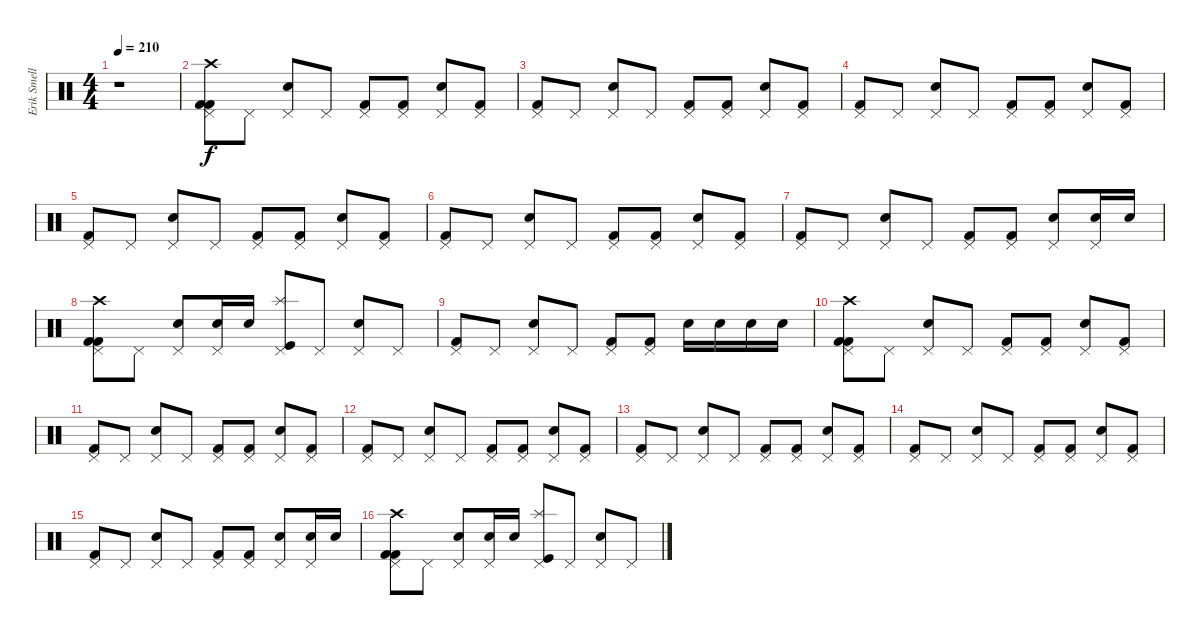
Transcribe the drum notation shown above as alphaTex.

\track ("Erik Smelly" "Erik Smell") {instrument percussion}
\staff {score}
\articulation defaults
\ts (4 4)
\tempo 210
\clef neutral
\ks c
r.1{dy f} |
("Pedal Hi-Hat (hit)" "Kick (hit) 2" "Crash high (hit)" "Kick (hit) 2").8 "Pedal Hi-Hat (hit)".8 ("Pedal Hi-Hat (hit)" "Electric Snare (hit)").8 "Pedal Hi-Hat (hit)".8 ("Pedal Hi-Hat (hit)" "Kick (hit) 2").8 ("Pedal Hi-Hat (hit)" "Kick (hit) 2").8 ("Pedal Hi-Hat (hit)" "Electric Snare (hit)").8 ("Kick (hit) 2" "Pedal Hi-Hat (hit)").8 |
("Pedal Hi-Hat (hit)" "Kick (hit) 2").8 "Pedal Hi-Hat (hit)".8 ("Pedal Hi-Hat (hit)" "Electric Snare (hit)").8 "Pedal Hi-Hat (hit)".8 ("Pedal Hi-Hat (hit)" "Kick (hit) 2").8 ("Pedal Hi-Hat (hit)" "Kick (hit) 2").8 ("Pedal Hi-Hat (hit)" "Electric Snare (hit)").8 ("Kick (hit) 2" "Pedal Hi-Hat (hit)").8 |
("Pedal Hi-Hat (hit)" "Kick (hit) 2").8 "Pedal Hi-Hat (hit)".8 ("Pedal Hi-Hat (hit)" "Electric Snare (hit)").8 "Pedal Hi-Hat (hit)".8 ("Pedal Hi-Hat (hit)" "Kick (hit) 2").8 ("Pedal Hi-Hat (hit)" "Kick (hit) 2").8 ("Pedal Hi-Hat (hit)" "Electric Snare (hit)").8 ("Kick (hit) 2" "Pedal Hi-Hat (hit)").8 |
("Pedal Hi-Hat (hit)" "Kick (hit) 2").8 "Pedal Hi-Hat (hit)".8 ("Pedal Hi-Hat (hit)" "Electric Snare (hit)").8 "Pedal Hi-Hat (hit)".8 ("Pedal Hi-Hat (hit)" "Kick (hit) 2").8 ("Pedal Hi-Hat (hit)" "Kick (hit) 2").8 ("Pedal Hi-Hat (hit)" "Electric Snare (hit)").8 ("Kick (hit) 2" "Pedal Hi-Hat (hit)").8 |
("Pedal Hi-Hat (hit)" "Kick (hit) 2").8 "Pedal Hi-Hat (hit)".8 ("Pedal Hi-Hat (hit)" "Electric Snare (hit)").8 "Pedal Hi-Hat (hit)".8 ("Pedal Hi-Hat (hit)" "Kick (hit) 2").8 ("Pedal Hi-Hat (hit)" "Kick (hit) 2").8 ("Pedal Hi-Hat (hit)" "Electric Snare (hit)").8 ("Kick (hit) 2" "Pedal Hi-Hat (hit)").8 |
("Pedal Hi-Hat (hit)" "Kick (hit) 2").8 "Pedal Hi-Hat (hit)".8 ("Pedal Hi-Hat (hit)" "Electric Snare (hit)").8 "Pedal Hi-Hat (hit)".8 ("Pedal Hi-Hat (hit)" "Kick (hit) 2").8 ("Pedal Hi-Hat (hit)" "Kick (hit) 2").8 ("Pedal Hi-Hat (hit)" "Electric Snare (hit)").8 ("Pedal Hi-Hat (hit)" "Electric Snare (hit)").16 "Electric Snare (hit)".16 |
("Crash high (hit)" "Kick (hit) 2" "Pedal Hi-Hat (hit)" "Kick (hit) 2").8 "Pedal Hi-Hat (hit)".8 ("Pedal Hi-Hat (hit)" "Electric Snare (hit)").8 ("Pedal Hi-Hat (hit)" "Electric Snare (hit)").16 "Electric Snare (hit)".16 ("Splash (hit)" "Kick (hit)" "Pedal Hi-Hat (hit)").8 "Pedal Hi-Hat (hit)".8 ("Electric Snare (hit)" "Pedal Hi-Hat (hit)").8 "Pedal Hi-Hat (hit)".8 |
("Pedal Hi-Hat (hit)" "Kick (hit) 2").8 "Pedal Hi-Hat (hit)".8 ("Electric Snare (hit)" "Pedal Hi-Hat (hit)").8 "Pedal Hi-Hat (hit)".8 ("Pedal Hi-Hat (hit)" "Kick (hit) 2").8 ("Kick (hit) 2" "Pedal Hi-Hat (hit)").8 "Electric Snare (hit)".16 "Electric Snare (hit)".16 "Electric Snare (hit)".16 "Electric Snare (hit)".16 |
("Pedal Hi-Hat (hit)" "Kick (hit) 2" "Crash high (hit)" "Kick (hit) 2").8 "Pedal Hi-Hat (hit)".8 ("Pedal Hi-Hat (hit)" "Electric Snare (hit)").8 "Pedal Hi-Hat (hit)".8 ("Pedal Hi-Hat (hit)" "Kick (hit) 2").8 ("Pedal Hi-Hat (hit)" "Kick (hit) 2").8 ("Pedal Hi-Hat (hit)" "Electric Snare (hit)").8 ("Kick (hit) 2" "Pedal Hi-Hat (hit)").8 |
("Pedal Hi-Hat (hit)" "Kick (hit) 2").8 "Pedal Hi-Hat (hit)".8 ("Pedal Hi-Hat (hit)" "Electric Snare (hit)").8 "Pedal Hi-Hat (hit)".8 ("Pedal Hi-Hat (hit)" "Kick (hit) 2").8 ("Pedal Hi-Hat (hit)" "Kick (hit) 2").8 ("Pedal Hi-Hat (hit)" "Electric Snare (hit)").8 ("Kick (hit) 2" "Pedal Hi-Hat (hit)").8 |
("Pedal Hi-Hat (hit)" "Kick (hit) 2").8 "Pedal Hi-Hat (hit)".8 ("Pedal Hi-Hat (hit)" "Electric Snare (hit)").8 "Pedal Hi-Hat (hit)".8 ("Pedal Hi-Hat (hit)" "Kick (hit) 2").8 ("Pedal Hi-Hat (hit)" "Kick (hit) 2").8 ("Pedal Hi-Hat (hit)" "Electric Snare (hit)").8 ("Kick (hit) 2" "Pedal Hi-Hat (hit)").8 |
("Pedal Hi-Hat (hit)" "Kick (hit) 2").8 "Pedal Hi-Hat (hit)".8 ("Pedal Hi-Hat (hit)" "Electric Snare (hit)").8 "Pedal Hi-Hat (hit)".8 ("Pedal Hi-Hat (hit)" "Kick (hit) 2").8 ("Pedal Hi-Hat (hit)" "Kick (hit) 2").8 ("Pedal Hi-Hat (hit)" "Electric Snare (hit)").8 ("Kick (hit) 2" "Pedal Hi-Hat (hit)").8 |
("Pedal Hi-Hat (hit)" "Kick (hit) 2").8 "Pedal Hi-Hat (hit)".8 ("Pedal Hi-Hat (hit)" "Electric Snare (hit)").8 "Pedal Hi-Hat (hit)".8 ("Pedal Hi-Hat (hit)" "Kick (hit) 2").8 ("Pedal Hi-Hat (hit)" "Kick (hit) 2").8 ("Pedal Hi-Hat (hit)" "Electric Snare (hit)").8 ("Kick (hit) 2" "Pedal Hi-Hat (hit)").8 |
("Pedal Hi-Hat (hit)" "Kick (hit) 2").8 "Pedal Hi-Hat (hit)".8 ("Pedal Hi-Hat (hit)" "Electric Snare (hit)").8 "Pedal Hi-Hat (hit)".8 ("Pedal Hi-Hat (hit)" "Kick (hit) 2").8 ("Pedal Hi-Hat (hit)" "Kick (hit) 2").8 ("Pedal Hi-Hat (hit)" "Electric Snare (hit)").8 ("Pedal Hi-Hat (hit)" "Electric Snare (hit)").16 "Electric Snare (hit)".16 |
("Pedal Hi-Hat (hit)" "Kick (hit) 2" "Crash high (hit)" "Kick (hit) 2").8 "Pedal Hi-Hat (hit)".8 ("Pedal Hi-Hat (hit)" "Electric Snare (hit)").8 ("Pedal Hi-Hat (hit)" "Electric Snare (hit)").16 "Electric Snare (hit)".16 ("Splash (hit)" "Kick (hit)" "Pedal Hi-Hat (hit)").8 "Pedal Hi-Hat (hit)".8 ("Electric Snare (hit)" "Pedal Hi-Hat (hit)").8 "Pedal Hi-Hat (hit)".8
